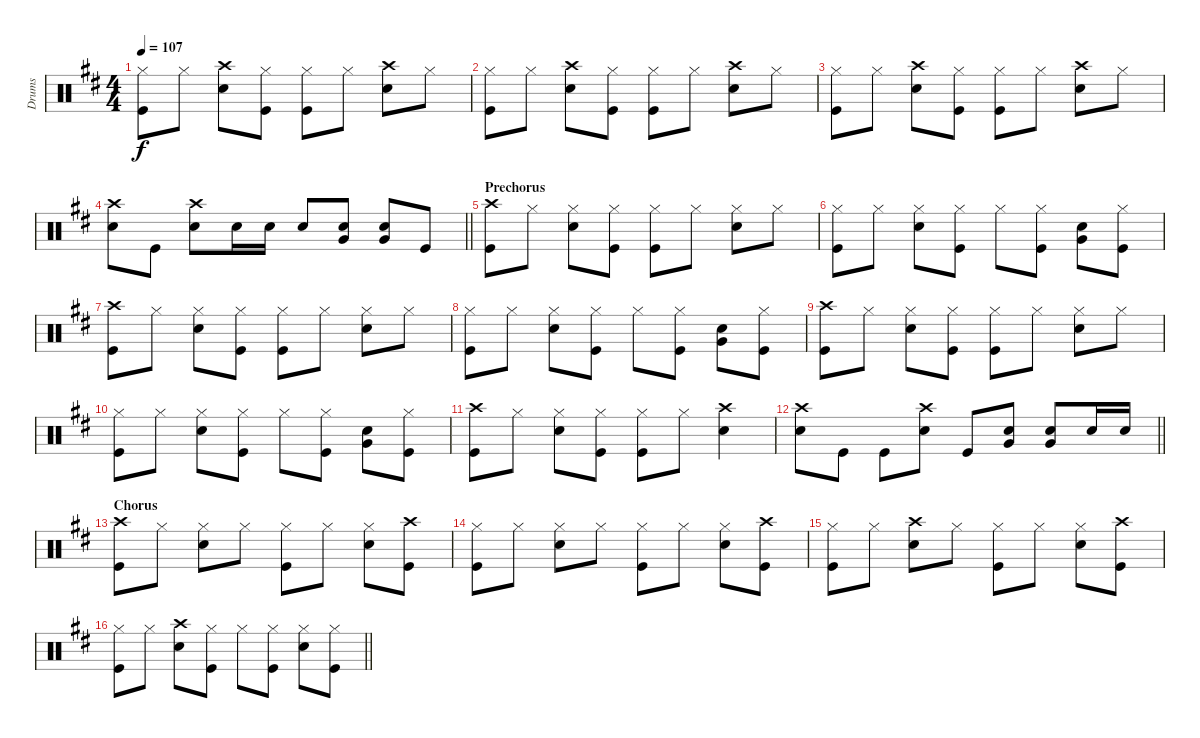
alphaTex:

\track ("Drums" "Drums") {instrument percussion}
\staff {score}
\articulation defaults
\ts (4 4)
\tempo 107
\clef neutral
\ks d
("Hi-Hat (closed)" "Kick (hit)").8{dy f} "Hi-Hat (closed)".8 ("Crash high (hit)" "Snare (hit) 2").8 ("Hi-Hat (closed)" "Kick (hit)").8 ("Hi-Hat (closed)" "Kick (hit)").8 "Hi-Hat (closed)".8 ("Crash high (hit)" "Snare (hit) 2").8 "Hi-Hat (closed)".8 |
("Hi-Hat (closed)" "Kick (hit)").8 "Hi-Hat (closed)".8 ("Crash high (hit)" "Snare (hit) 2").8 ("Hi-Hat (closed)" "Kick (hit)").8 ("Hi-Hat (closed)" "Kick (hit)").8 "Hi-Hat (closed)".8 ("Crash high (hit)" "Snare (hit) 2").8 "Hi-Hat (closed)".8 |
("Hi-Hat (closed)" "Kick (hit)").8 "Hi-Hat (closed)".8 ("Crash high (hit)" "Snare (hit) 2").8 ("Hi-Hat (closed)" "Kick (hit)").8 ("Hi-Hat (closed)" "Kick (hit)").8 "Hi-Hat (closed)".8 ("Crash high (hit)" "Snare (hit) 2").8 "Hi-Hat (closed)".8 |
\barLineRight lightlight
("Crash high (hit)" "Snare (hit) 2").8 "Kick (hit)".8 ("Crash high (hit)" "Snare (hit) 2").8 "Snare (hit) 2".16 "Snare (hit) 2".16 "Snare (hit) 2".8 ("Snare (hit) 2" "Very Low Tom (hit)").8 ("Snare (hit) 2" "Very Low Tom (hit)").8 "Kick (hit)".8 |
\section ("" "Prechorus")
("Crash high (hit)" "Kick (hit)").8 "Hi-Hat (closed)".8 ("Hi-Hat (closed)" "Snare (hit) 2").8 ("Hi-Hat (closed)" "Kick (hit)").8 ("Hi-Hat (closed)" "Kick (hit)").8 "Hi-Hat (closed)".8 ("Hi-Hat (closed)" "Snare (hit) 2").8 "Hi-Hat (closed)".8 |
("Hi-Hat (closed)" "Kick (hit)").8 "Hi-Hat (closed)".8 ("Hi-Hat (closed)" "Snare (hit) 2").8 ("Hi-Hat (closed)" "Kick (hit)").8 "Hi-Hat (closed)".8 ("Hi-Hat (closed)" "Kick (hit)").8 ("Snare (hit) 2" "Very Low Tom (hit)").8 ("Hi-Hat (closed)" "Kick (hit)").8 |
("Crash high (hit)" "Kick (hit)").8 "Hi-Hat (closed)".8 ("Hi-Hat (closed)" "Snare (hit) 2").8 ("Hi-Hat (closed)" "Kick (hit)").8 ("Hi-Hat (closed)" "Kick (hit)").8 "Hi-Hat (closed)".8 ("Hi-Hat (closed)" "Snare (hit) 2").8 "Hi-Hat (closed)".8 |
("Hi-Hat (closed)" "Kick (hit)").8 "Hi-Hat (closed)".8 ("Hi-Hat (closed)" "Snare (hit) 2").8 ("Hi-Hat (closed)" "Kick (hit)").8 "Hi-Hat (closed)".8 ("Hi-Hat (closed)" "Kick (hit)").8 ("Snare (hit) 2" "Very Low Tom (hit)").8 ("Hi-Hat (closed)" "Kick (hit)").8 |
("Crash high (hit)" "Kick (hit)").8 "Hi-Hat (closed)".8 ("Hi-Hat (closed)" "Snare (hit) 2").8 ("Hi-Hat (closed)" "Kick (hit)").8 ("Hi-Hat (closed)" "Kick (hit)").8 "Hi-Hat (closed)".8 ("Hi-Hat (closed)" "Snare (hit) 2").8 "Hi-Hat (closed)".8 |
("Hi-Hat (closed)" "Kick (hit)").8 "Hi-Hat (closed)".8 ("Hi-Hat (closed)" "Snare (hit) 2").8 ("Hi-Hat (closed)" "Kick (hit)").8 "Hi-Hat (closed)".8 ("Hi-Hat (closed)" "Kick (hit)").8 ("Snare (hit) 2" "Very Low Tom (hit)").8 ("Hi-Hat (closed)" "Kick (hit)").8 |
("Crash high (hit)" "Kick (hit)").8 "Hi-Hat (closed)".8 ("Hi-Hat (closed)" "Snare (hit) 2").8 ("Hi-Hat (closed)" "Kick (hit)").8 ("Hi-Hat (closed)" "Kick (hit)").8 "Hi-Hat (closed)".8 ("Crash high (hit)" "Snare (hit) 2").4 |
\barLineRight lightlight
("Crash high (hit)" "Snare (hit) 2").8 "Kick (hit)".8 "Kick (hit)".8 ("Crash high (hit)" "Snare (hit) 2").8 "Kick (hit)".8 ("Snare (hit) 2" "Very Low Tom (hit)").8 ("Snare (hit) 2" "Very Low Tom (hit)").8 "Snare (hit) 2".16 "Snare (hit) 2".16 |
\section ("" "Chorus")
("Crash high (hit)" "Kick (hit)").8 "Hi-Hat (closed)".8 ("Hi-Hat (closed)" "Snare (hit) 2").8 "Hi-Hat (closed)".8 ("Hi-Hat (closed)" "Kick (hit)").8 "Hi-Hat (closed)".8 ("Hi-Hat (closed)" "Snare (hit) 2").8 ("Crash high (hit)" "Kick (hit)").8 |
("Hi-Hat (closed)" "Kick (hit)").8 "Hi-Hat (closed)".8 ("Hi-Hat (closed)" "Snare (hit) 2").8 "Hi-Hat (closed)".8 ("Hi-Hat (closed)" "Kick (hit)").8 "Hi-Hat (closed)".8 ("Hi-Hat (closed)" "Snare (hit) 2").8 ("Crash high (hit)" "Kick (hit)").8 |
("Hi-Hat (closed)" "Kick (hit)").8 "Hi-Hat (closed)".8 ("Crash high (hit)" "Snare (hit) 2").8 "Hi-Hat (closed)".8 ("Hi-Hat (closed)" "Kick (hit)").8 "Hi-Hat (closed)".8 ("Hi-Hat (closed)" "Snare (hit) 2").8 ("Crash high (hit)" "Kick (hit)").8 |
\barLineRight lightlight
("Hi-Hat (closed)" "Kick (hit)").8 "Hi-Hat (closed)".8 ("Crash high (hit)" "Snare (hit) 2").8 ("Hi-Hat (closed)" "Kick (hit)").8 "Hi-Hat (closed)".8 ("Hi-Hat (closed)" "Kick (hit)").8 ("Hi-Hat (closed)" "Snare (hit) 2").8 ("Hi-Hat (closed)" "Kick (hit)").8
